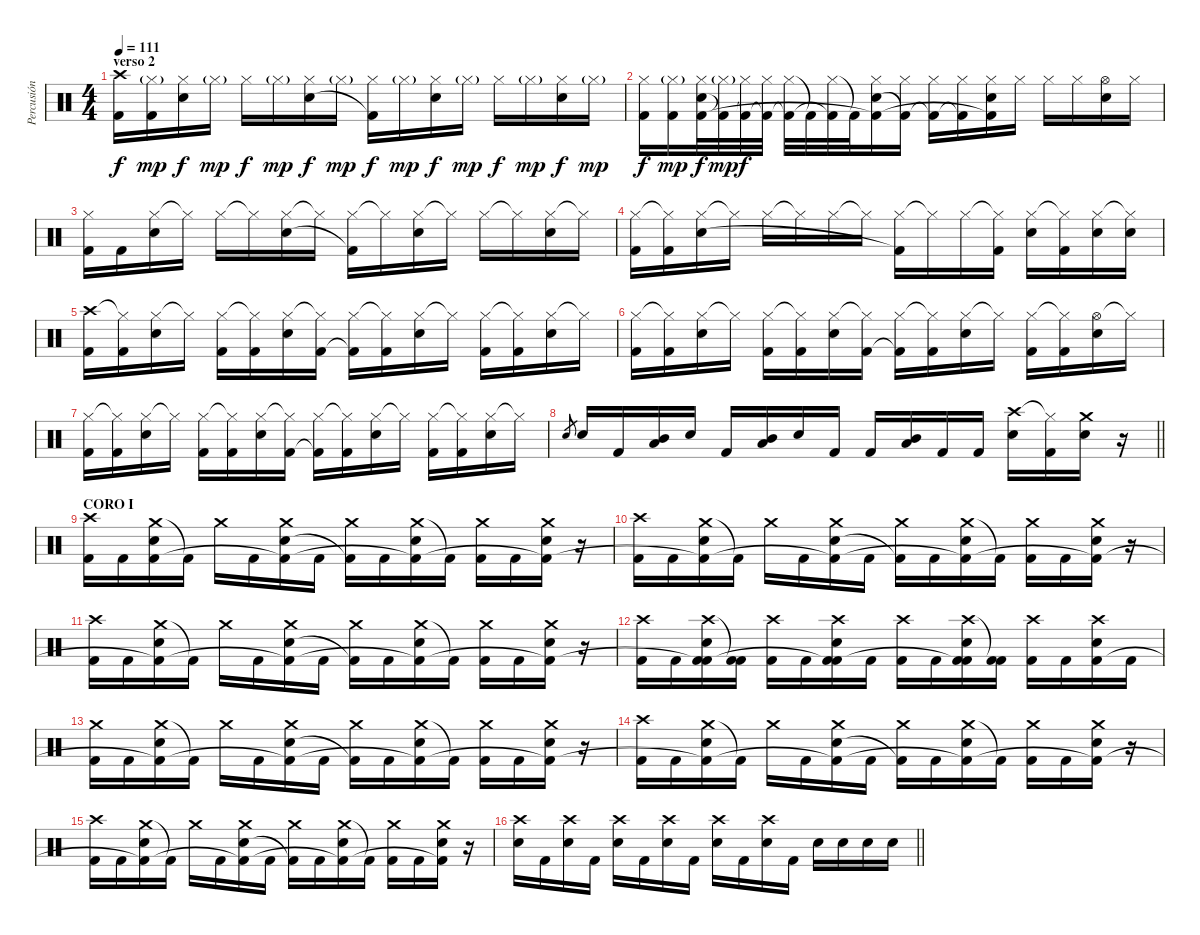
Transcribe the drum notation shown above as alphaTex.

\track ("Percusión" "Percusión") {instrument percussion}
\staff {score}
\articulation defaults
\ts (4 4)
\section ("" "verso 2")
\tempo 111
\clef neutral
\ks c
("Crash high (hit)" "Kick (hit) 2").16{dy f} ("Hi-Hat (closed)"{g} "Kick (hit) 2").16{dy mp} ("Hi-Hat (closed)" "Electric Snare (hit)").16{dy f} "Hi-Hat (closed)"{g}.16{dy mp} "Hi-Hat (closed)".16{dy f} "Hi-Hat (closed)"{g}.16{dy mp} ("Hi-Hat (closed)" "Electric Snare (hit)").16{dy f} "Hi-Hat (closed)"{g}.16{dy mp} ("Hi-Hat (closed)" "Kick (hit) 2"{t}).16{dy f} "Hi-Hat (closed)"{g}.16{dy mp} ("Hi-Hat (closed)" "Electric Snare (hit)").16{dy f} "Hi-Hat (closed)"{g}.16{dy mp} "Hi-Hat (closed)".16{dy f} "Hi-Hat (closed)"{g}.16{dy mp} ("Hi-Hat (closed)" "Electric Snare (hit)").16{dy f} "Hi-Hat (closed)"{g}.16{dy mp} |
("Hi-Hat (closed)" "Kick (hit) 2").16{dy f} ("Hi-Hat (closed)"{g} "Kick (hit) 2").16{dy mp} ("Hi-Hat (closed)" "Electric Snare (hit)" "Kick (hit) 2"{t}).32{dy f} ("Hi-Hat (closed)"{g} "Kick (hit) 2"{t}).32{dy mp} ("Hi-Hat (closed)" "Kick (hit) 2"{t}).32{dy f} ("Hi-Hat (closed)" "Kick (hit) 2"{t}).32 ("Hi-Hat (closed)" "Kick (hit) 2"{t}).32 "Kick (hit) 2"{t}.32 ("Hi-Hat (closed)" "Kick (hit) 2"{t}).32 "Kick (hit) 2"{t}.32 ("Hi-Hat (closed)" "Electric Snare (hit)" "Kick (hit) 2"{t}).16 ("Hi-Hat (closed)" "Kick (hit) 2"{t}).16 ("Hi-Hat (closed)" "Kick (hit) 2"{t}).16 ("Hi-Hat (closed)" "Kick (hit) 2"{t}).16 ("Hi-Hat (closed)" "Electric Snare (hit)" "Kick (hit) 2"{t}).16 "Hi-Hat (closed)".16 "Hi-Hat (closed)".16 "Hi-Hat (closed)".16 ("Hi-Hat (open)" "Electric Snare (hit)").16 "Hi-Hat (closed)".16 |
("Hi-Hat (closed)" "Kick (hit) 2").16 "Kick (hit) 2".16 ("Hi-Hat (closed)" "Electric Snare (hit)").16 "Hi-Hat (closed)"{t}.16 "Hi-Hat (closed)".16 "Hi-Hat (closed)"{t}.16 ("Hi-Hat (closed)" "Electric Snare (hit)").16 "Hi-Hat (closed)"{t}.16 ("Hi-Hat (closed)" "Kick (hit) 2"{t}).16 "Hi-Hat (closed)"{t}.16 ("Hi-Hat (closed)" "Electric Snare (hit)").16 "Hi-Hat (closed)"{t}.16 "Hi-Hat (closed)".16 "Hi-Hat (closed)"{t}.16 ("Hi-Hat (closed)" "Electric Snare (hit)").16 "Hi-Hat (closed)"{t}.16 |
("Hi-Hat (closed)" "Kick (hit) 2").16 ("Hi-Hat (closed)"{t} "Kick (hit) 2").16 ("Hi-Hat (closed)" "Electric Snare (hit)").16 "Hi-Hat (closed)"{t}.16 "Hi-Hat (closed)".16 "Hi-Hat (closed)"{t}.16 "Hi-Hat (closed)".16 "Hi-Hat (closed)"{t}.16 ("Hi-Hat (closed)" "Kick (hit) 2"{t}).16 "Hi-Hat (closed)"{t}.16 "Hi-Hat (closed)".16 ("Hi-Hat (closed)"{t} "Kick (hit) 2").16 ("Hi-Hat (closed)" "Electric Snare (hit)").16 ("Hi-Hat (closed)"{t} "Kick (hit) 2").16 ("Hi-Hat (closed)" "Electric Snare (hit)").16 ("Hi-Hat (closed)"{t} "Electric Snare (hit)").16 |
("Crash high (hit)" "Kick (hit) 2").16 ("Hi-Hat (closed)"{t} "Kick (hit) 2").16 ("Hi-Hat (closed)" "Electric Snare (hit)").16 "Hi-Hat (closed)"{t}.16 ("Hi-Hat (closed)" "Kick (hit) 2").16 ("Hi-Hat (closed)"{t} "Kick (hit) 2").16 ("Hi-Hat (closed)" "Electric Snare (hit)").16 ("Hi-Hat (closed)"{t} "Kick (hit) 2").16 ("Hi-Hat (closed)" "Kick (hit) 2"{t}).16 ("Hi-Hat (closed)"{t} "Kick (hit) 2").16 ("Hi-Hat (closed)" "Electric Snare (hit)").16 "Hi-Hat (closed)"{t}.16 ("Hi-Hat (closed)" "Kick (hit) 2").16 ("Hi-Hat (closed)"{t} "Kick (hit) 2").16 ("Hi-Hat (closed)" "Electric Snare (hit)").16 "Hi-Hat (closed)"{t}.16 |
("Hi-Hat (closed)" "Kick (hit) 2").16 ("Hi-Hat (closed)"{t} "Kick (hit) 2").16 ("Hi-Hat (closed)" "Electric Snare (hit)").16 "Hi-Hat (closed)"{t}.16 ("Hi-Hat (closed)" "Kick (hit) 2").16 ("Hi-Hat (closed)"{t} "Kick (hit) 2").16 ("Hi-Hat (closed)" "Electric Snare (hit)").16 ("Hi-Hat (closed)"{t} "Kick (hit) 2").16 ("Hi-Hat (closed)" "Kick (hit) 2"{t}).16 ("Hi-Hat (closed)"{t} "Kick (hit) 2").16 ("Hi-Hat (closed)" "Electric Snare (hit)").16 "Hi-Hat (closed)"{t}.16 ("Hi-Hat (closed)" "Kick (hit) 2").16 ("Hi-Hat (closed)"{t} "Kick (hit) 2").16 ("Hi-Hat (open)" "Electric Snare (hit)").16 "Hi-Hat (closed)"{t}.16 |
("Hi-Hat (closed)" "Kick (hit) 2").16 ("Hi-Hat (closed)"{t} "Kick (hit) 2").16 ("Hi-Hat (closed)" "Electric Snare (hit)").16 "Hi-Hat (closed)"{t}.16 ("Hi-Hat (closed)" "Kick (hit) 2").16 ("Hi-Hat (closed)"{t} "Kick (hit) 2").16 ("Hi-Hat (closed)" "Electric Snare (hit)").16 ("Hi-Hat (closed)"{t} "Kick (hit) 2").16 ("Hi-Hat (closed)" "Kick (hit) 2"{t}).16 ("Hi-Hat (closed)"{t} "Kick (hit) 2").16 ("Hi-Hat (closed)" "Electric Snare (hit)").16 "Hi-Hat (closed)"{t}.16 ("Hi-Hat (closed)" "Kick (hit) 2").16 ("Hi-Hat (closed)"{t} "Kick (hit) 2").16 ("Hi-Hat (closed)" "Electric Snare (hit)").16 "Hi-Hat (closed)"{t}.16 |
\barLineRight lightlight "Electric Snare (hit)".8{gr} "Electric Snare (hit)".16 "Kick (hit) 2".16
("Mid Tom (hit)" "Low Tom (hit)").16 "Electric Snare (hit)".16 "Kick (hit) 2".16 ("Mid Tom (hit)" "Low Tom (hit)").16 "Electric Snare (hit)".16 "Kick (hit) 2".16 "Kick (hit) 2".16 ("Low Tom (hit)" "Mid Tom (hit)").16 "Kick (hit) 2".16 "Kick (hit) 2".16 ("Crash high (hit)" "Electric Snare (hit)").16 ("Hi-Hat (closed)"{t} "Kick (hit) 2").16 ("Crash medium (hit)" "Electric Snare (hit)").16 r.16 |
\section ("" "CORO I")
("Crash high (hit)" "Kick (hit) 2").16 "Kick (hit) 2".16 ("Crash medium (hit)" "Electric Snare (hit)" "Kick (hit) 2").16 "Kick (hit) 2"{t}.16 "Crash medium (hit)".16 "Kick (hit) 2".16 ("Crash medium (hit)" "Electric Snare (hit)" "Kick (hit) 2"{t}).16 "Kick (hit) 2".16 ("Crash medium (hit)" "Kick (hit) 2"{t}).16 "Kick (hit) 2".16 ("Crash medium (hit)" "Electric Snare (hit)" "Kick (hit) 2"{t}).16 "Kick (hit) 2"{t}.16 ("Crash medium (hit)" "Kick (hit) 2").16 "Kick (hit) 2".16 ("Crash medium (hit)" "Electric Snare (hit)" "Kick (hit) 2"{t}).16 r.16 |
("Crash high (hit)" "Kick (hit) 2").16 "Kick (hit) 2".16 ("Crash medium (hit)" "Electric Snare (hit)" "Kick (hit) 2"{t}).16 "Kick (hit) 2"{t}.16 "Crash medium (hit)".16 "Kick (hit) 2".16 ("Crash medium (hit)" "Electric Snare (hit)" "Kick (hit) 2"{t}).16 "Kick (hit) 2".16 ("Crash medium (hit)" "Kick (hit) 2"{t}).16 "Kick (hit) 2".16 ("Crash medium (hit)" "Electric Snare (hit)" "Kick (hit) 2"{t}).16 "Kick (hit) 2"{t}.16 ("Crash medium (hit)" "Kick (hit) 2").16 "Kick (hit) 2".16 ("Crash medium (hit)" "Electric Snare (hit)" "Kick (hit) 2"{t}).16 r.16 |
("Crash high (hit)" "Kick (hit) 2").16 "Kick (hit) 2".16 ("Crash medium (hit)" "Electric Snare (hit)" "Kick (hit) 2"{t}).16 "Kick (hit) 2"{t}.16 "Crash medium (hit)".16 "Kick (hit) 2".16 ("Crash medium (hit)" "Electric Snare (hit)" "Kick (hit) 2"{t}).16 "Kick (hit) 2".16 ("Crash medium (hit)" "Kick (hit) 2"{t}).16 "Kick (hit) 2".16 ("Crash medium (hit)" "Electric Snare (hit)" "Kick (hit) 2"{t}).16 "Kick (hit) 2"{t}.16 ("Crash medium (hit)" "Kick (hit) 2").16 "Kick (hit) 2".16 ("Crash medium (hit)" "Electric Snare (hit)" "Kick (hit) 2"{t}).16 r.16 |
("Crash high (hit)" "Kick (hit) 2").16 "Kick (hit) 2".16 ("Crash high (hit)" "Electric Snare (hit)" "Kick (hit) 2"{t} "Kick (hit) 2").16 ("Kick (hit) 2"{t} "Kick (hit) 2").16 ("Crash high (hit)" "Kick (hit) 2").16 "Kick (hit) 2".16 ("Crash high (hit)" "Electric Snare (hit)" "Kick (hit) 2"{t} "Kick (hit) 2").16 "Kick (hit) 2".16 ("Crash high (hit)" "Kick (hit) 2").16 "Kick (hit) 2".16 ("Crash high (hit)" "Electric Snare (hit)" "Kick (hit) 2"{t} "Kick (hit) 2").16 ("Kick (hit) 2"{t} "Kick (hit) 2").16 ("Crash high (hit)" "Kick (hit) 2").16 "Kick (hit) 2".16 ("Crash high (hit)" "Electric Snare (hit)" "Kick (hit) 2").16 "Kick (hit) 2".16 |
("Crash medium (hit)" "Kick (hit) 2").16 "Kick (hit) 2".16 ("Crash medium (hit)" "Electric Snare (hit)" "Kick (hit) 2"{t}).16 "Kick (hit) 2"{t}.16 "Crash medium (hit)".16 "Kick (hit) 2".16 ("Crash medium (hit)" "Electric Snare (hit)" "Kick (hit) 2"{t}).16 "Kick (hit) 2".16 ("Crash medium (hit)" "Kick (hit) 2"{t}).16 "Kick (hit) 2".16 ("Crash medium (hit)" "Electric Snare (hit)" "Kick (hit) 2"{t}).16 "Kick (hit) 2"{t}.16 ("Crash medium (hit)" "Kick (hit) 2").16 "Kick (hit) 2".16 ("Crash medium (hit)" "Electric Snare (hit)" "Kick (hit) 2"{t}).16 r.16 |
("Crash high (hit)" "Kick (hit) 2").16 "Kick (hit) 2".16 ("Crash medium (hit)" "Electric Snare (hit)" "Kick (hit) 2"{t}).16 "Kick (hit) 2"{t}.16 "Crash medium (hit)".16 "Kick (hit) 2".16 ("Crash medium (hit)" "Electric Snare (hit)" "Kick (hit) 2"{t}).16 "Kick (hit) 2".16 ("Crash medium (hit)" "Kick (hit) 2"{t}).16 "Kick (hit) 2".16 ("Crash medium (hit)" "Electric Snare (hit)" "Kick (hit) 2"{t}).16 "Kick (hit) 2"{t}.16 ("Crash medium (hit)" "Kick (hit) 2").16 "Kick (hit) 2".16 ("Crash medium (hit)" "Electric Snare (hit)" "Kick (hit) 2"{t}).16 r.16 |
("Crash high (hit)" "Kick (hit) 2").16 "Kick (hit) 2".16 ("Crash medium (hit)" "Electric Snare (hit)" "Kick (hit) 2"{t}).16 "Kick (hit) 2"{t}.16 "Crash medium (hit)".16 "Kick (hit) 2".16 ("Crash medium (hit)" "Electric Snare (hit)" "Kick (hit) 2"{t}).16 "Kick (hit) 2".16 ("Crash medium (hit)" "Kick (hit) 2"{t}).16 "Kick (hit) 2".16 ("Crash medium (hit)" "Electric Snare (hit)" "Kick (hit) 2"{t}).16 "Kick (hit) 2"{t}.16 ("Crash medium (hit)" "Kick (hit) 2").16 "Kick (hit) 2".16 ("Crash medium (hit)" "Electric Snare (hit)" "Kick (hit) 2"{t}).16 r.16 |
\barLineRight lightlight
("Crash high (hit)" "Electric Snare (hit)").16 "Kick (hit) 2".16 ("Crash high (hit)" "Electric Snare (hit)").16 "Kick (hit) 2".16 ("Crash high (hit)" "Electric Snare (hit)").16 "Kick (hit) 2".16 ("Crash high (hit)" "Electric Snare (hit)").16 "Kick (hit) 2".16 ("Crash high (hit)" "Electric Snare (hit)").16 "Kick (hit) 2".16 ("Crash high (hit)" "Electric Snare (hit)").16 "Kick (hit) 2".16 "Electric Snare (hit)".16 "Electric Snare (hit)".16 "Electric Snare (hit)".16 "Electric Snare (hit)".16
